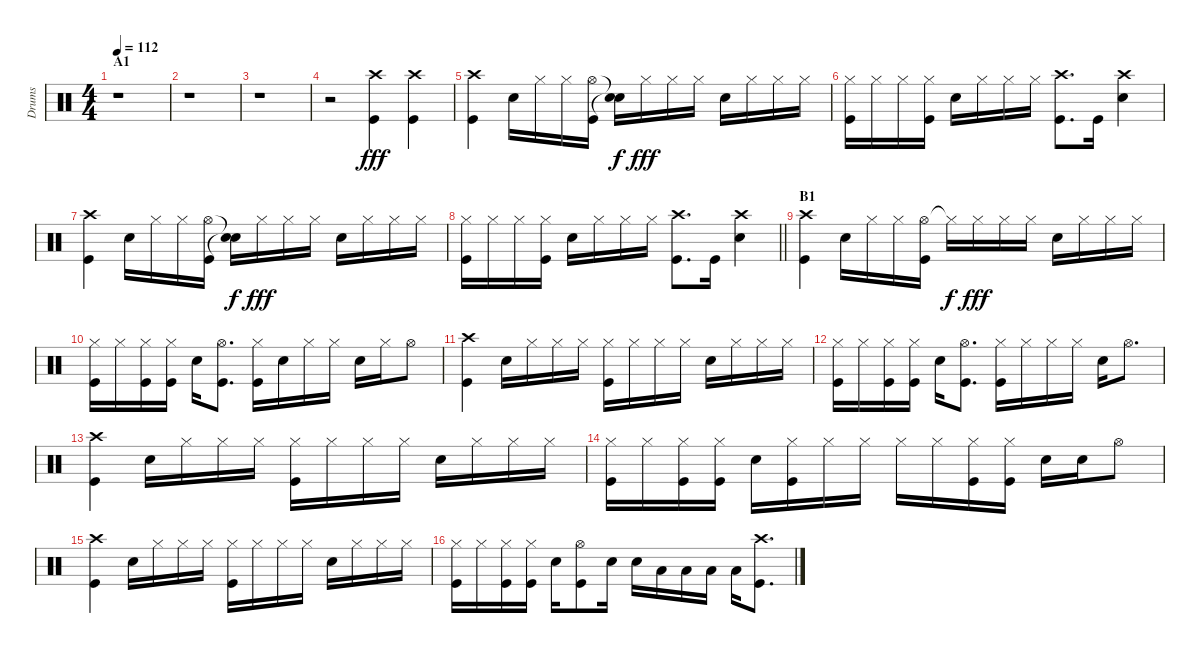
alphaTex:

\track ("Drums" "Drums") {instrument percussion}
\staff {score}
\articulation defaults
\ts (4 4)
\section ("" "A1")
\tempo 112
\clef neutral
\ks c
r.1{dy fff} |
r.1 |
r.1 |
r.2 ("Crash high (hit)" "Kick (hit)").4 ("Crash high (hit)" "Kick (hit)").4 |
("Crash high (hit)" "Kick (hit)").4 "Snare (hit) 2".16 "Hi-Hat (closed)".16 "Hi-Hat (closed)".16 ("Hi-Hat (open)" "Kick (hit)").16 ("Snare (hit)"{t} "Snare (hit)"{t}).16{dy f} "Hi-Hat (closed)".16{dy fff} "Hi-Hat (closed)".16 "Hi-Hat (closed)".16 "Snare (hit) 2".16 "Hi-Hat (closed)".16 "Hi-Hat (closed)".16 "Hi-Hat (closed)".16 |
("Hi-Hat (closed)" "Kick (hit)").16 "Hi-Hat (closed)".16 "Hi-Hat (closed)".16 ("Hi-Hat (closed)" "Kick (hit)").16 "Snare (hit) 2".16 "Hi-Hat (closed)".16 "Hi-Hat (closed)".16 "Hi-Hat (closed)".16 ("Crash high (hit)" "Kick (hit)").8{d} "Kick (hit)".16 ("Crash high (hit)" "Snare (hit) 2").4 |
("Crash high (hit)" "Kick (hit)").4 "Snare (hit) 2".16 "Hi-Hat (closed)".16 "Hi-Hat (closed)".16 ("Hi-Hat (open)" "Kick (hit)").16 ("Snare (hit)"{t} "Snare (hit)"{t}).16{dy f} "Hi-Hat (closed)".16{dy fff} "Hi-Hat (closed)".16 "Hi-Hat (closed)".16 "Snare (hit) 2".16 "Hi-Hat (closed)".16 "Hi-Hat (closed)".16 "Hi-Hat (closed)".16 |
\barLineRight lightlight
("Hi-Hat (closed)" "Kick (hit)").16 "Hi-Hat (closed)".16 "Hi-Hat (closed)".16 ("Hi-Hat (closed)" "Kick (hit)").16 "Snare (hit) 2".16 "Hi-Hat (closed)".16 "Hi-Hat (closed)".16 "Hi-Hat (closed)".16 ("Crash high (hit)" "Kick (hit)").8{d} "Kick (hit)".16 ("Crash high (hit)" "Snare (hit) 2").4 |
\section ("" "B1")
("Crash high (hit)" "Kick (hit)").4 "Snare (hit) 2".16 "Hi-Hat (closed)".16 "Hi-Hat (closed)".16 ("Hi-Hat (open)" "Kick (hit)").16 "Hi-Hat (closed)"{t}.16{dy f} "Hi-Hat (closed)".16{dy fff} "Hi-Hat (closed)".16 "Hi-Hat (closed)".16 "Snare (hit) 2".16 "Hi-Hat (closed)".16 "Hi-Hat (closed)".16 "Hi-Hat (closed)".16 |
("Hi-Hat (closed)" "Kick (hit)").16 "Hi-Hat (closed)".16 ("Hi-Hat (closed)" "Kick (hit)").16 ("Hi-Hat (closed)" "Kick (hit)").16 "Snare (hit) 2".16 ("Hi-Hat (open)" "Kick (hit)").8{d} ("Hi-Hat (closed)" "Kick (hit)").16 "Snare (hit) 2".16 "Hi-Hat (closed)".16 "Hi-Hat (closed)".16 "Snare (hit) 2".16 "Hi-Hat (closed)".16 "Hi-Hat (open)".8 |
("Crash high (hit)" "Kick (hit)").4 "Snare (hit) 2".16 "Hi-Hat (closed)".16 "Hi-Hat (closed)".16 "Hi-Hat (closed)".16 ("Hi-Hat (closed)" "Kick (hit)").16 "Hi-Hat (closed)".16 "Hi-Hat (closed)".16 "Hi-Hat (closed)".16 "Snare (hit) 2".16 "Hi-Hat (closed)".16 "Hi-Hat (closed)".16 "Hi-Hat (closed)".16 |
("Hi-Hat (closed)" "Kick (hit)").16 "Hi-Hat (closed)".16 ("Hi-Hat (closed)" "Kick (hit)").16 ("Hi-Hat (closed)" "Kick (hit)").16 "Snare (hit) 2".16 ("Hi-Hat (open)" "Kick (hit)").8{d} ("Hi-Hat (closed)" "Kick (hit)").16 "Hi-Hat (closed)".16 "Hi-Hat (closed)".16 "Hi-Hat (closed)".16 "Snare (hit) 2".16 "Hi-Hat (open)".8{d} |
("Crash high (hit)" "Kick (hit)").4 "Snare (hit) 2".16 "Hi-Hat (closed)".16 "Hi-Hat (closed)".16 "Hi-Hat (closed)".16 ("Hi-Hat (closed)" "Kick (hit)").16 "Hi-Hat (closed)".16 "Hi-Hat (closed)".16 "Hi-Hat (closed)".16 "Snare (hit) 2".16 "Hi-Hat (closed)".16 "Hi-Hat (closed)".16 "Hi-Hat (closed)".16 |
("Hi-Hat (closed)" "Kick (hit)").16 "Hi-Hat (closed)".16 ("Hi-Hat (closed)" "Kick (hit)").16 ("Hi-Hat (closed)" "Kick (hit)").16 "Snare (hit) 2".16 ("Hi-Hat (closed)" "Kick (hit)").16 "Hi-Hat (closed)".16 "Hi-Hat (closed)".16 "Hi-Hat (closed)".16 "Hi-Hat (closed)".16 ("Hi-Hat (closed)" "Kick (hit)").16 ("Hi-Hat (closed)" "Kick (hit)").16 "Snare (hit) 2".16 "Snare (hit) 2".16 "Hi-Hat (open)".8 |
("Crash high (hit)" "Kick (hit)").4 "Snare (hit) 2".16 "Hi-Hat (closed)".16 "Hi-Hat (closed)".16 "Hi-Hat (closed)".16 ("Hi-Hat (closed)" "Kick (hit)").16 "Hi-Hat (closed)".16 "Hi-Hat (closed)".16 "Hi-Hat (closed)".16 "Snare (hit) 2".16 "Hi-Hat (closed)".16 "Hi-Hat (closed)".16 "Hi-Hat (closed)".16 |
("Hi-Hat (closed)" "Kick (hit)").16 "Hi-Hat (closed)".16 ("Hi-Hat (closed)" "Kick (hit)").16 ("Hi-Hat (closed)" "Kick (hit)").16 "Snare (hit) 2".16 ("Hi-Hat (open)" "Kick (hit)").8 "Snare (hit) 2".16 "Snare (hit) 2".16 "Low Tom (hit)".16 "Low Tom (hit)".16 "Low Tom (hit)".16 "Low Tom (hit)".16 ("Crash high (hit)" "Kick (hit)").8{d}
